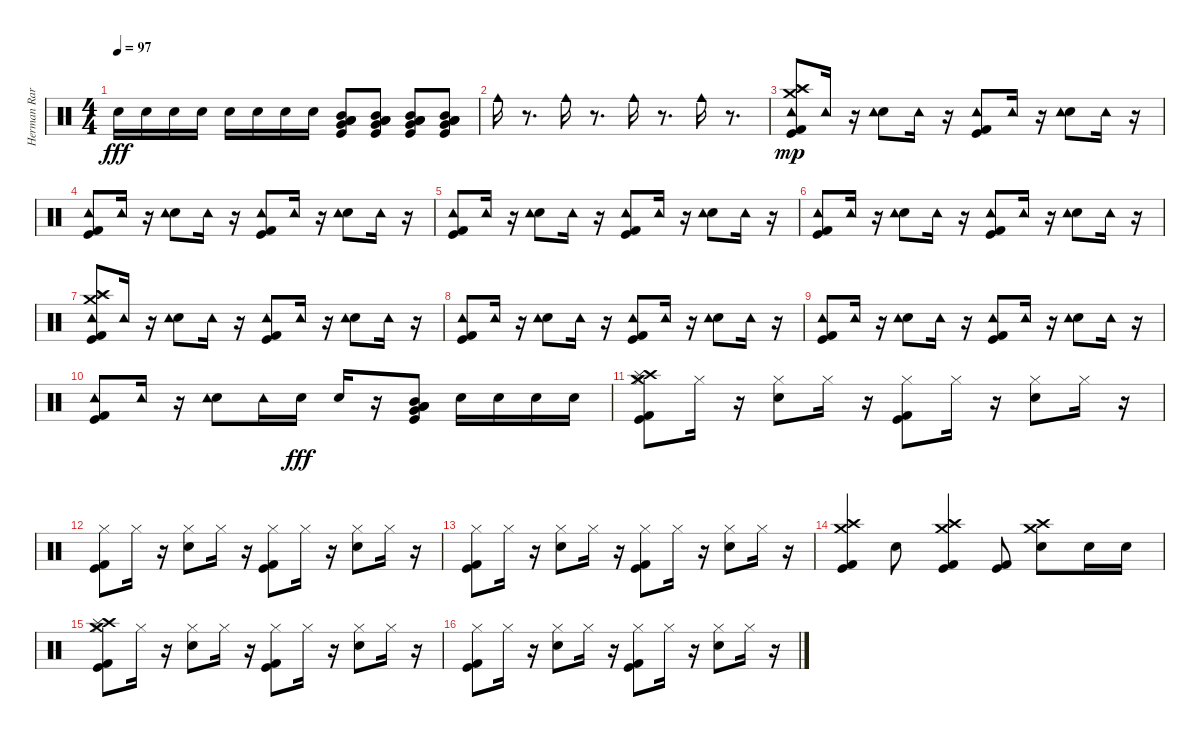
\track ("Herman Rarebell" "Herman Rar") {instrument percussion}
\staff {score}
\articulation defaults
\ts (4 4)
\tempo 97
\clef neutral
\ks c "Snare (hit) 2".16{dy fff} "Snare (hit) 2".16 "Snare (hit) 2".16 "Snare (hit) 2".16 "Snare (hit) 2".16 "Snare (hit) 2".16 "Snare (hit) 2".16 "Snare (hit) 2".16
("Mid Tom (hit)" "Low Tom (hit)" "Very Low Tom (hit)" "Low Floor Tom (hit)" "Kick (hit)").8 ("Mid Tom (hit)" "Low Tom (hit)" "Very Low Tom (hit)" "Low Floor Tom (hit)" "Kick (hit)").8 ("Mid Tom (hit)" "Low Tom (hit)" "Very Low Tom (hit)" "Low Floor Tom (hit)" "Kick (hit)").8 ("Mid Tom (hit)" "Low Tom (hit)" "Very Low Tom (hit)" "Low Floor Tom (hit)" "Kick (hit)").8 |
"Cowbell medium (hit)".16 r.8{d} "Cowbell medium (hit)".16 r.8{d} "Cowbell medium (hit)".16 r.8{d} "Cowbell medium (hit)".16 r.8{d} |
("Crash high (hit)" "Splash (hit)" "Crash medium (hit)" "Kick (hit) 2" "Kick (hit)" "Tambourine (hit)").8{dy mp} "Tambourine (hit)".16 r.16 ("Snare (hit) 2" "Tambourine (hit)").8 "Tambourine (hit)".16 r.16 ("Kick (hit) 2" "Kick (hit)" "Tambourine (hit)").8 "Tambourine (hit)".16 r.16 ("Snare (hit) 2" "Tambourine (hit)").8 "Tambourine (hit)".16 r.16 |
("Kick (hit)" "Kick (hit) 2" "Tambourine (hit)").8 "Tambourine (hit)".16 r.16 ("Snare (hit) 2" "Tambourine (hit)").8 "Tambourine (hit)".16 r.16 ("Kick (hit) 2" "Kick (hit)" "Tambourine (hit)").8 "Tambourine (hit)".16 r.16 ("Snare (hit) 2" "Tambourine (hit)").8 "Tambourine (hit)".16 r.16 |
("Kick (hit)" "Kick (hit) 2" "Tambourine (hit)").8 "Tambourine (hit)".16 r.16 ("Snare (hit) 2" "Tambourine (hit)").8 "Tambourine (hit)".16 r.16 ("Kick (hit) 2" "Kick (hit)" "Tambourine (hit)").8 "Tambourine (hit)".16 r.16 ("Snare (hit) 2" "Tambourine (hit)").8 "Tambourine (hit)".16 r.16 |
("Kick (hit)" "Kick (hit) 2" "Tambourine (hit)").8 "Tambourine (hit)".16 r.16 ("Snare (hit) 2" "Tambourine (hit)").8 "Tambourine (hit)".16 r.16 ("Kick (hit) 2" "Kick (hit)" "Tambourine (hit)").8 "Tambourine (hit)".16 r.16 ("Snare (hit) 2" "Tambourine (hit)").8 "Tambourine (hit)".16 r.16 |
("Crash high (hit)" "Splash (hit)" "Crash medium (hit)" "Kick (hit) 2" "Kick (hit)" "Tambourine (hit)").8 "Tambourine (hit)".16 r.16 ("Snare (hit) 2" "Tambourine (hit)").8 "Tambourine (hit)".16 r.16 ("Kick (hit) 2" "Kick (hit)" "Tambourine (hit)").8 "Tambourine (hit)".16 r.16 ("Snare (hit) 2" "Tambourine (hit)").8 "Tambourine (hit)".16 r.16 |
("Kick (hit)" "Kick (hit) 2" "Tambourine (hit)").8 "Tambourine (hit)".16 r.16 ("Snare (hit) 2" "Tambourine (hit)").8 "Tambourine (hit)".16 r.16 ("Kick (hit) 2" "Kick (hit)" "Tambourine (hit)").8 "Tambourine (hit)".16 r.16 ("Snare (hit) 2" "Tambourine (hit)").8 "Tambourine (hit)".16 r.16 |
("Kick (hit)" "Kick (hit) 2" "Tambourine (hit)").8 "Tambourine (hit)".16 r.16 ("Snare (hit) 2" "Tambourine (hit)").8 "Tambourine (hit)".16 r.16 ("Kick (hit) 2" "Kick (hit)" "Tambourine (hit)").8 "Tambourine (hit)".16 r.16 ("Snare (hit) 2" "Tambourine (hit)").8 "Tambourine (hit)".16 r.16 |
("Kick (hit)" "Kick (hit) 2" "Tambourine (hit)").8 "Tambourine (hit)".16 r.16 ("Snare (hit) 2" "Tambourine (hit)").8 "Tambourine (hit)".16 "Snare (hit) 2".16{dy fff} "Snare (hit) 2".16 r.16 ("Mid Tom (hit)" "Low Tom (hit)" "Very Low Tom (hit)" "Low Floor Tom (hit)" "Kick (hit)").8 "Snare (hit) 2".16 "Snare (hit) 2".16 "Snare (hit) 2".16 "Snare (hit) 2".16 |
("Hi-Hat (closed)" "Crash high (hit)" "Splash (hit)" "Crash medium (hit)" "Kick (hit)" "Kick (hit) 2").8 "Hi-Hat (closed)".16 r.16 ("Snare (hit) 2" "Hi-Hat (closed)").8 "Hi-Hat (closed)".16 r.16 ("Kick (hit) 2" "Kick (hit)" "Hi-Hat (closed)").8 "Hi-Hat (closed)".16 r.16 ("Snare (hit) 2" "Hi-Hat (closed)").8 "Hi-Hat (closed)".16 r.16 |
("Hi-Hat (closed)" "Kick (hit)" "Kick (hit) 2").8 "Hi-Hat (closed)".16 r.16 ("Snare (hit) 2" "Hi-Hat (closed)").8 "Hi-Hat (closed)".16 r.16 ("Kick (hit) 2" "Kick (hit)" "Hi-Hat (closed)").8 "Hi-Hat (closed)".16 r.16 ("Snare (hit) 2" "Hi-Hat (closed)").8 "Hi-Hat (closed)".16 r.16 |
("Hi-Hat (closed)" "Kick (hit)" "Kick (hit) 2").8 "Hi-Hat (closed)".16 r.16 ("Snare (hit) 2" "Hi-Hat (closed)").8 "Hi-Hat (closed)".16 r.16 ("Kick (hit) 2" "Kick (hit)" "Hi-Hat (closed)").8 "Hi-Hat (closed)".16 r.16 ("Snare (hit) 2" "Hi-Hat (closed)").8 "Hi-Hat (closed)".16 r.16 |
("Kick (hit) 2" "Kick (hit)" "Crash high (hit)" "Crash medium (hit)").4 "Snare (hit) 2".8 ("Crash medium (hit)" "Crash high (hit)" "Kick (hit)" "Kick (hit) 2").4 ("Kick (hit)" "Kick (hit) 2").8 ("Crash medium (hit)" "Crash high (hit)" "Snare (hit) 2").8 "Snare (hit) 2".16 "Snare (hit) 2".16 |
("Hi-Hat (closed)" "Crash high (hit)" "Splash (hit)" "Crash medium (hit)" "Kick (hit)" "Kick (hit) 2").8 "Hi-Hat (closed)".16 r.16 ("Snare (hit) 2" "Hi-Hat (closed)").8 "Hi-Hat (closed)".16 r.16 ("Kick (hit) 2" "Kick (hit)" "Hi-Hat (closed)").8 "Hi-Hat (closed)".16 r.16 ("Snare (hit) 2" "Hi-Hat (closed)").8 "Hi-Hat (closed)".16 r.16 |
("Hi-Hat (closed)" "Kick (hit)" "Kick (hit) 2").8 "Hi-Hat (closed)".16 r.16 ("Snare (hit) 2" "Hi-Hat (closed)").8 "Hi-Hat (closed)".16 r.16 ("Kick (hit) 2" "Kick (hit)" "Hi-Hat (closed)").8 "Hi-Hat (closed)".16 r.16 ("Snare (hit) 2" "Hi-Hat (closed)").8 "Hi-Hat (closed)".16 r.16
